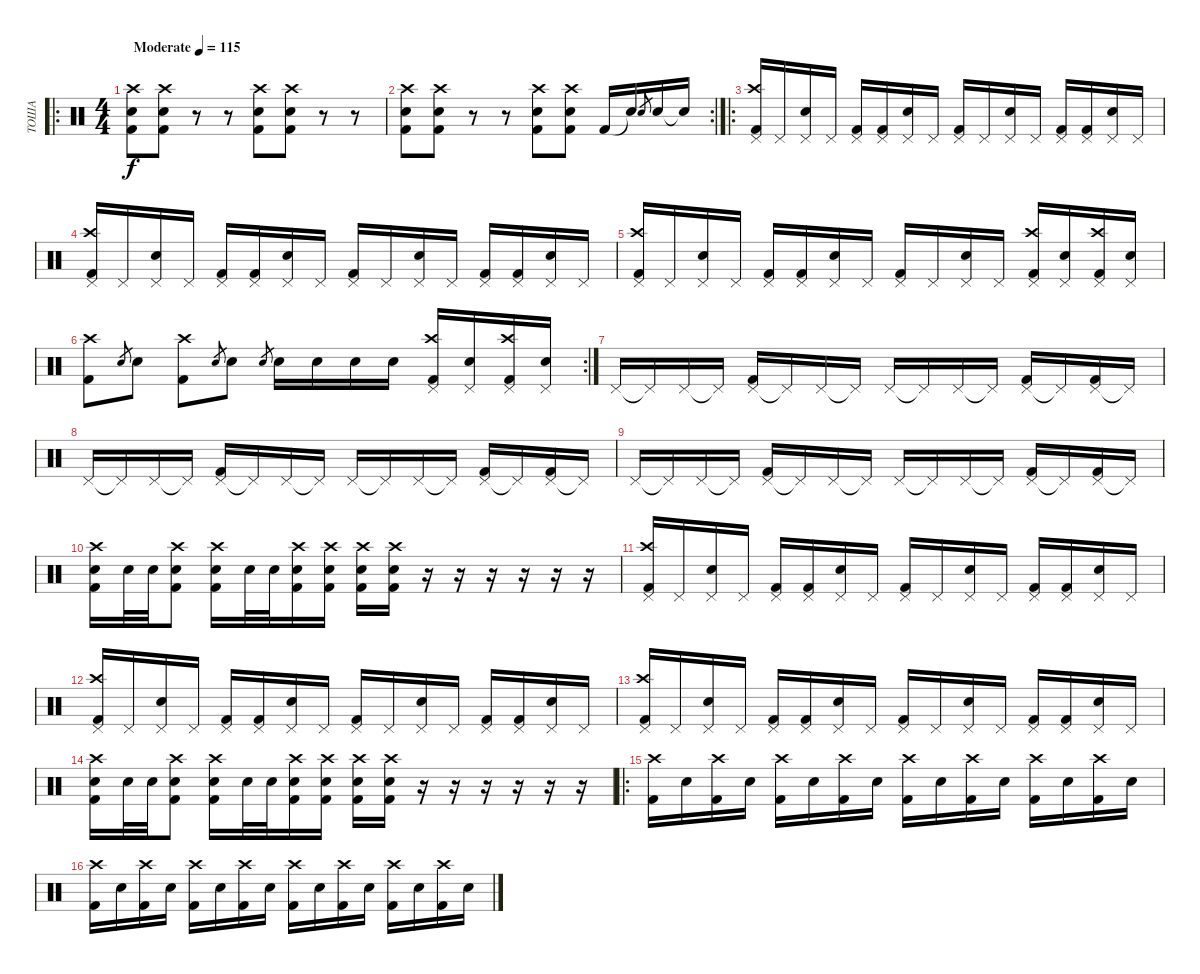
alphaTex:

\track ("ТОША" "ТОША") {instrument percussion}
\staff {score}
\articulation defaults
\ro
\ts (4 4)
\tempo (115 "Moderate")
\clef neutral
\ks c
("Kick (hit) 2" "Electric Snare (hit)" "Crash high (hit)").8{dy f} ("Kick (hit) 2" "Electric Snare (hit)" "Crash high (hit)").8 r.8 r.8 ("Kick (hit) 2" "Electric Snare (hit)" "Crash high (hit)").8 ("Kick (hit) 2" "Electric Snare (hit)" "Crash high (hit)").8 r.8 r.8 |
\rc 2
("Kick (hit) 2" "Electric Snare (hit)" "Crash high (hit)").8 ("Kick (hit) 2" "Electric Snare (hit)" "Crash high (hit)").8 r.8 r.8 ("Kick (hit) 2" "Electric Snare (hit)" "Crash high (hit)").8 ("Kick (hit) 2" "Electric Snare (hit)" "Crash high (hit)").8 "Kick (hit) 2".16 "Electric Snare (hit)"{t}.16 "Electric Snare (hit)".8{gr} "Electric Snare (hit)".16 "Electric Snare (hit)"{t}.16 |
\ro
("Pedal Hi-Hat (hit)" "Crash high (hit)" "Kick (hit) 2").16 "Pedal Hi-Hat (hit)".16 ("Pedal Hi-Hat (hit)" "Electric Snare (hit)").16 "Pedal Hi-Hat (hit)".16 ("Pedal Hi-Hat (hit)" "Kick (hit) 2").16 ("Pedal Hi-Hat (hit)" "Kick (hit) 2").16 ("Pedal Hi-Hat (hit)" "Electric Snare (hit)").16 "Pedal Hi-Hat (hit)".16 ("Pedal Hi-Hat (hit)" "Kick (hit) 2").16 "Pedal Hi-Hat (hit)".16 ("Pedal Hi-Hat (hit)" "Electric Snare (hit)").16 "Pedal Hi-Hat (hit)".16 ("Pedal Hi-Hat (hit)" "Kick (hit) 2").16 ("Pedal Hi-Hat (hit)" "Kick (hit) 2").16 ("Pedal Hi-Hat (hit)" "Electric Snare (hit)").16 "Pedal Hi-Hat (hit)".16 |
("Pedal Hi-Hat (hit)" "Crash high (hit)" "Kick (hit) 2").16 "Pedal Hi-Hat (hit)".16 ("Pedal Hi-Hat (hit)" "Electric Snare (hit)").16 "Pedal Hi-Hat (hit)".16 ("Pedal Hi-Hat (hit)" "Kick (hit) 2").16 ("Pedal Hi-Hat (hit)" "Kick (hit) 2").16 ("Pedal Hi-Hat (hit)" "Electric Snare (hit)").16 "Pedal Hi-Hat (hit)".16 ("Pedal Hi-Hat (hit)" "Kick (hit) 2").16 "Pedal Hi-Hat (hit)".16 ("Pedal Hi-Hat (hit)" "Electric Snare (hit)").16 "Pedal Hi-Hat (hit)".16 ("Pedal Hi-Hat (hit)" "Kick (hit) 2").16 ("Pedal Hi-Hat (hit)" "Kick (hit) 2").16 ("Pedal Hi-Hat (hit)" "Electric Snare (hit)").16 "Pedal Hi-Hat (hit)".16 |
("Pedal Hi-Hat (hit)" "Crash high (hit)" "Kick (hit) 2").16 "Pedal Hi-Hat (hit)".16 ("Pedal Hi-Hat (hit)" "Electric Snare (hit)").16 "Pedal Hi-Hat (hit)".16 ("Pedal Hi-Hat (hit)" "Kick (hit) 2").16 ("Pedal Hi-Hat (hit)" "Kick (hit) 2").16 ("Pedal Hi-Hat (hit)" "Electric Snare (hit)").16 "Pedal Hi-Hat (hit)".16 ("Pedal Hi-Hat (hit)" "Kick (hit) 2").16 "Pedal Hi-Hat (hit)".16 ("Pedal Hi-Hat (hit)" "Electric Snare (hit)").16 "Pedal Hi-Hat (hit)".16 ("Pedal Hi-Hat (hit)" "Crash high (hit)" "Kick (hit) 2").16 ("Pedal Hi-Hat (hit)" "Electric Snare (hit)").16 ("Pedal Hi-Hat (hit)" "Crash high (hit)" "Kick (hit) 2").16 ("Pedal Hi-Hat (hit)" "Electric Snare (hit)").16 |
\rc 2
("Kick (hit) 2" "Crash high (hit)").8 "Electric Snare (hit)".8{gr} "Electric Snare (hit)".8 ("Kick (hit) 2" "Crash high (hit)").8 "Electric Snare (hit)".8{gr} "Electric Snare (hit)".8 "Electric Snare (hit)".8{gr} "Electric Snare (hit)".16 "Electric Snare (hit)".16 "Electric Snare (hit)".16 "Electric Snare (hit)".16 ("Pedal Hi-Hat (hit)" "Crash high (hit)" "Kick (hit) 2").16 ("Pedal Hi-Hat (hit)" "Electric Snare (hit)").16 ("Pedal Hi-Hat (hit)" "Crash high (hit)" "Kick (hit) 2").16 ("Pedal Hi-Hat (hit)" "Electric Snare (hit)").16 |
"Pedal Hi-Hat (hit)".16 "Pedal Hi-Hat (hit)"{t}.16 "Pedal Hi-Hat (hit)".16 "Pedal Hi-Hat (hit)"{t}.16 ("Pedal Hi-Hat (hit)" "Kick (hit) 2").16 "Pedal Hi-Hat (hit)"{t}.16 "Pedal Hi-Hat (hit)".16 "Pedal Hi-Hat (hit)"{t}.16 "Pedal Hi-Hat (hit)".16 "Pedal Hi-Hat (hit)"{t}.16 "Pedal Hi-Hat (hit)".16 "Pedal Hi-Hat (hit)"{t}.16 ("Pedal Hi-Hat (hit)" "Kick (hit) 2").16 "Pedal Hi-Hat (hit)"{t}.16 ("Pedal Hi-Hat (hit)" "Kick (hit) 2").16 "Pedal Hi-Hat (hit)"{t}.16 |
"Pedal Hi-Hat (hit)".16 "Pedal Hi-Hat (hit)"{t}.16 "Pedal Hi-Hat (hit)".16 "Pedal Hi-Hat (hit)"{t}.16 ("Pedal Hi-Hat (hit)" "Kick (hit) 2").16 "Pedal Hi-Hat (hit)"{t}.16 "Pedal Hi-Hat (hit)".16 "Pedal Hi-Hat (hit)"{t}.16 "Pedal Hi-Hat (hit)".16 "Pedal Hi-Hat (hit)"{t}.16 "Pedal Hi-Hat (hit)".16 "Pedal Hi-Hat (hit)"{t}.16 ("Pedal Hi-Hat (hit)" "Kick (hit) 2").16 "Pedal Hi-Hat (hit)"{t}.16 ("Pedal Hi-Hat (hit)" "Kick (hit) 2").16 "Pedal Hi-Hat (hit)"{t}.16 |
"Pedal Hi-Hat (hit)".16 "Pedal Hi-Hat (hit)"{t}.16 "Pedal Hi-Hat (hit)".16 "Pedal Hi-Hat (hit)"{t}.16 ("Pedal Hi-Hat (hit)" "Kick (hit) 2").16 "Pedal Hi-Hat (hit)"{t}.16 "Pedal Hi-Hat (hit)".16 "Pedal Hi-Hat (hit)"{t}.16 "Pedal Hi-Hat (hit)".16 "Pedal Hi-Hat (hit)"{t}.16 "Pedal Hi-Hat (hit)".16 "Pedal Hi-Hat (hit)"{t}.16 ("Pedal Hi-Hat (hit)" "Kick (hit) 2").16 "Pedal Hi-Hat (hit)"{t}.16 ("Pedal Hi-Hat (hit)" "Kick (hit) 2").16 "Pedal Hi-Hat (hit)"{t}.16 |
("Crash high (hit)" "Electric Snare (hit)" "Kick (hit) 2").16 "Electric Snare (hit)".32 "Electric Snare (hit)".32 ("Crash high (hit)" "Electric Snare (hit)" "Kick (hit) 2").8 ("Crash high (hit)" "Electric Snare (hit)" "Kick (hit) 2").16 "Electric Snare (hit)".32 "Electric Snare (hit)".32 ("Crash high (hit)" "Electric Snare (hit)" "Kick (hit) 2").16 ("Crash high (hit)" "Electric Snare (hit)" "Kick (hit) 2").16 ("Crash high (hit)" "Electric Snare (hit)" "Kick (hit) 2").16 ("Crash high (hit)" "Electric Snare (hit)" "Kick (hit) 2").16 r.16 r.16 r.16 r.16 r.16 r.16 |
("Pedal Hi-Hat (hit)" "Crash high (hit)" "Kick (hit) 2").16 "Pedal Hi-Hat (hit)".16 ("Pedal Hi-Hat (hit)" "Electric Snare (hit)").16 "Pedal Hi-Hat (hit)".16 ("Pedal Hi-Hat (hit)" "Kick (hit) 2").16 ("Pedal Hi-Hat (hit)" "Kick (hit) 2").16 ("Pedal Hi-Hat (hit)" "Electric Snare (hit)").16 "Pedal Hi-Hat (hit)".16 ("Pedal Hi-Hat (hit)" "Kick (hit) 2").16 "Pedal Hi-Hat (hit)".16 ("Pedal Hi-Hat (hit)" "Electric Snare (hit)").16 "Pedal Hi-Hat (hit)".16 ("Pedal Hi-Hat (hit)" "Kick (hit) 2").16 ("Pedal Hi-Hat (hit)" "Kick (hit) 2").16 ("Pedal Hi-Hat (hit)" "Electric Snare (hit)").16 "Pedal Hi-Hat (hit)".16 |
("Pedal Hi-Hat (hit)" "Crash high (hit)" "Kick (hit) 2").16 "Pedal Hi-Hat (hit)".16 ("Pedal Hi-Hat (hit)" "Electric Snare (hit)").16 "Pedal Hi-Hat (hit)".16 ("Pedal Hi-Hat (hit)" "Kick (hit) 2").16 ("Pedal Hi-Hat (hit)" "Kick (hit) 2").16 ("Pedal Hi-Hat (hit)" "Electric Snare (hit)").16 "Pedal Hi-Hat (hit)".16 ("Pedal Hi-Hat (hit)" "Kick (hit) 2").16 "Pedal Hi-Hat (hit)".16 ("Pedal Hi-Hat (hit)" "Electric Snare (hit)").16 "Pedal Hi-Hat (hit)".16 ("Pedal Hi-Hat (hit)" "Kick (hit) 2").16 ("Pedal Hi-Hat (hit)" "Kick (hit) 2").16 ("Pedal Hi-Hat (hit)" "Electric Snare (hit)").16 "Pedal Hi-Hat (hit)".16 |
("Pedal Hi-Hat (hit)" "Crash high (hit)" "Kick (hit) 2").16 "Pedal Hi-Hat (hit)".16 ("Pedal Hi-Hat (hit)" "Electric Snare (hit)").16 "Pedal Hi-Hat (hit)".16 ("Pedal Hi-Hat (hit)" "Kick (hit) 2").16 ("Pedal Hi-Hat (hit)" "Kick (hit) 2").16 ("Pedal Hi-Hat (hit)" "Electric Snare (hit)").16 "Pedal Hi-Hat (hit)".16 ("Pedal Hi-Hat (hit)" "Kick (hit) 2").16 "Pedal Hi-Hat (hit)".16 ("Pedal Hi-Hat (hit)" "Electric Snare (hit)").16 "Pedal Hi-Hat (hit)".16 ("Pedal Hi-Hat (hit)" "Kick (hit) 2").16 ("Pedal Hi-Hat (hit)" "Kick (hit) 2").16 ("Pedal Hi-Hat (hit)" "Electric Snare (hit)").16 "Pedal Hi-Hat (hit)".16 |
("Crash high (hit)" "Electric Snare (hit)" "Kick (hit) 2").16 "Electric Snare (hit)".32 "Electric Snare (hit)".32 ("Crash high (hit)" "Electric Snare (hit)" "Kick (hit) 2").8 ("Crash high (hit)" "Electric Snare (hit)" "Kick (hit) 2").16 "Electric Snare (hit)".32 "Electric Snare (hit)".32 ("Crash high (hit)" "Electric Snare (hit)" "Kick (hit) 2").16 ("Crash high (hit)" "Electric Snare (hit)" "Kick (hit) 2").16 ("Crash high (hit)" "Electric Snare (hit)" "Kick (hit) 2").16 ("Crash high (hit)" "Electric Snare (hit)" "Kick (hit) 2").16 r.16 r.16 r.16 r.16 r.16 r.16 |
\ro
("Crash high (hit)" "Kick (hit) 2").16 "Electric Snare (hit)".16 ("Crash high (hit)" "Kick (hit) 2").16 "Electric Snare (hit)".16 ("Crash high (hit)" "Kick (hit) 2").16 "Electric Snare (hit)".16 ("Crash high (hit)" "Kick (hit) 2").16 "Electric Snare (hit)".16 ("Crash high (hit)" "Kick (hit) 2").16 "Electric Snare (hit)".16 ("Crash high (hit)" "Kick (hit) 2").16 "Electric Snare (hit)".16 ("Crash high (hit)" "Kick (hit) 2").16 "Electric Snare (hit)".16 ("Crash high (hit)" "Kick (hit) 2").16 "Electric Snare (hit)".16 |
("Crash high (hit)" "Kick (hit) 2").16 "Electric Snare (hit)".16 ("Crash high (hit)" "Kick (hit) 2").16 "Electric Snare (hit)".16 ("Crash high (hit)" "Kick (hit) 2").16 "Electric Snare (hit)".16 ("Crash high (hit)" "Kick (hit) 2").16 "Electric Snare (hit)".16 ("Crash high (hit)" "Kick (hit) 2").16 "Electric Snare (hit)".16 ("Crash high (hit)" "Kick (hit) 2").16 "Electric Snare (hit)".16 ("Crash high (hit)" "Kick (hit) 2").16 "Electric Snare (hit)".16 ("Crash high (hit)" "Kick (hit) 2").16 "Electric Snare (hit)".16
